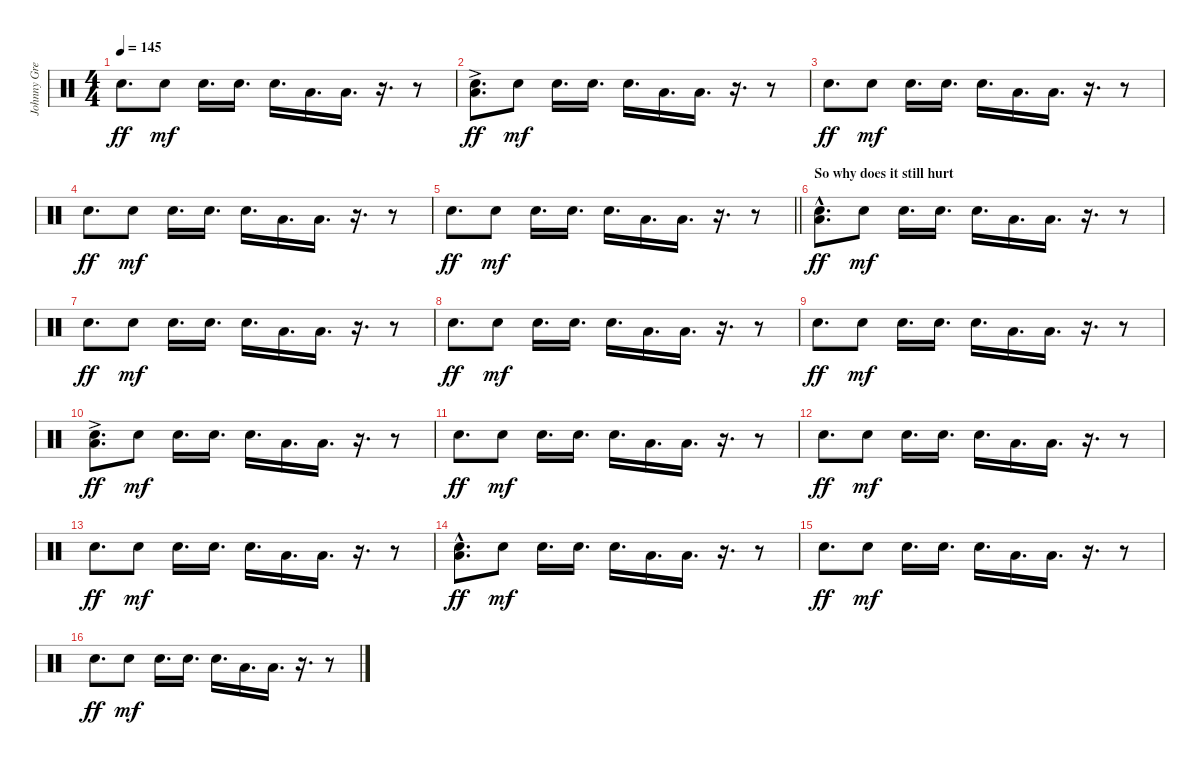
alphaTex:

\track ("Johnny Greenwood" "Johnny Gre") {instrument percussion}
\staff {score}
\articulation defaults
\ts (4 4)
\tempo 145
\clef neutral
\ks c "Snare (hit) 2".8{d dy ff} "Snare (hit) 2".8{dy mf} "Snare (hit) 2".16{d} "Snare (hit) 2".16{d} "Snare (hit) 2".16{d} "Low Floor Tom (hit)".16{d} "Low Floor Tom (hit)".16{d}
r.16{d} r.8 |
("Snare (hit) 2" "Low Floor Tom (hit)"{ac}).8{d dy ff} "Snare (hit) 2".8{dy mf} "Snare (hit) 2".16{d} "Snare (hit) 2".16{d} "Snare (hit) 2".16{d} "Low Floor Tom (hit)".16{d} "Low Floor Tom (hit)".16{d} r.16{d} r.8 |
"Snare (hit) 2".8{d dy ff} "Snare (hit) 2".8{dy mf} "Snare (hit) 2".16{d} "Snare (hit) 2".16{d} "Snare (hit) 2".16{d} "Low Floor Tom (hit)".16{d} "Low Floor Tom (hit)".16{d} r.16{d} r.8 |
"Snare (hit) 2".8{d dy ff} "Snare (hit) 2".8{dy mf} "Snare (hit) 2".16{d} "Snare (hit) 2".16{d} "Snare (hit) 2".16{d} "Low Floor Tom (hit)".16{d} "Low Floor Tom (hit)".16{d} r.16{d} r.8 |
\barLineRight lightlight "Snare (hit) 2".8{d dy ff} "Snare (hit) 2".8{dy mf} "Snare (hit) 2".16{d} "Snare (hit) 2".16{d} "Snare (hit) 2".16{d} "Low Floor Tom (hit)".16{d} "Low Floor Tom (hit)".16{d}
r.16{d} r.8 |
\section ("" "So why does it still hurt")
("Snare (hit) 2" "Low Floor Tom (hit)"{hac}).8{d dy ff} "Snare (hit) 2".8{dy mf} "Snare (hit) 2".16{d} "Snare (hit) 2".16{d} "Snare (hit) 2".16{d} "Low Floor Tom (hit)".16{d} "Low Floor Tom (hit)".16{d} r.16{d} r.8 |
"Snare (hit) 2".8{d dy ff} "Snare (hit) 2".8{dy mf} "Snare (hit) 2".16{d} "Snare (hit) 2".16{d} "Snare (hit) 2".16{d} "Low Floor Tom (hit)".16{d} "Low Floor Tom (hit)".16{d} r.16{d} r.8 |
"Snare (hit) 2".8{d dy ff} "Snare (hit) 2".8{dy mf} "Snare (hit) 2".16{d} "Snare (hit) 2".16{d} "Snare (hit) 2".16{d} "Low Floor Tom (hit)".16{d} "Low Floor Tom (hit)".16{d} r.16{d} r.8 |
"Snare (hit) 2".8{d dy ff} "Snare (hit) 2".8{dy mf} "Snare (hit) 2".16{d} "Snare (hit) 2".16{d} "Snare (hit) 2".16{d} "Low Floor Tom (hit)".16{d} "Low Floor Tom (hit)".16{d} r.16{d} r.8 |
("Snare (hit) 2" "Low Floor Tom (hit)"{ac}).8{d dy ff} "Snare (hit) 2".8{dy mf} "Snare (hit) 2".16{d} "Snare (hit) 2".16{d} "Snare (hit) 2".16{d} "Low Floor Tom (hit)".16{d} "Low Floor Tom (hit)".16{d} r.16{d} r.8 |
"Snare (hit) 2".8{d dy ff} "Snare (hit) 2".8{dy mf} "Snare (hit) 2".16{d} "Snare (hit) 2".16{d} "Snare (hit) 2".16{d} "Low Floor Tom (hit)".16{d} "Low Floor Tom (hit)".16{d} r.16{d} r.8 |
"Snare (hit) 2".8{d dy ff} "Snare (hit) 2".8{dy mf} "Snare (hit) 2".16{d} "Snare (hit) 2".16{d} "Snare (hit) 2".16{d} "Low Floor Tom (hit)".16{d} "Low Floor Tom (hit)".16{d} r.16{d} r.8 |
"Snare (hit) 2".8{d dy ff} "Snare (hit) 2".8{dy mf} "Snare (hit) 2".16{d} "Snare (hit) 2".16{d} "Snare (hit) 2".16{d} "Low Floor Tom (hit)".16{d} "Low Floor Tom (hit)".16{d} r.16{d} r.8 |
("Snare (hit) 2" "Low Floor Tom (hit)"{hac}).8{d dy ff} "Snare (hit) 2".8{dy mf} "Snare (hit) 2".16{d} "Snare (hit) 2".16{d} "Snare (hit) 2".16{d} "Low Floor Tom (hit)".16{d} "Low Floor Tom (hit)".16{d} r.16{d} r.8 |
"Snare (hit) 2".8{d dy ff} "Snare (hit) 2".8{dy mf} "Snare (hit) 2".16{d} "Snare (hit) 2".16{d} "Snare (hit) 2".16{d} "Low Floor Tom (hit)".16{d} "Low Floor Tom (hit)".16{d} r.16{d} r.8 |
"Snare (hit) 2".8{d dy ff} "Snare (hit) 2".8{dy mf} "Snare (hit) 2".16{d} "Snare (hit) 2".16{d} "Snare (hit) 2".16{d} "Low Floor Tom (hit)".16{d} "Low Floor Tom (hit)".16{d} r.16{d} r.8
